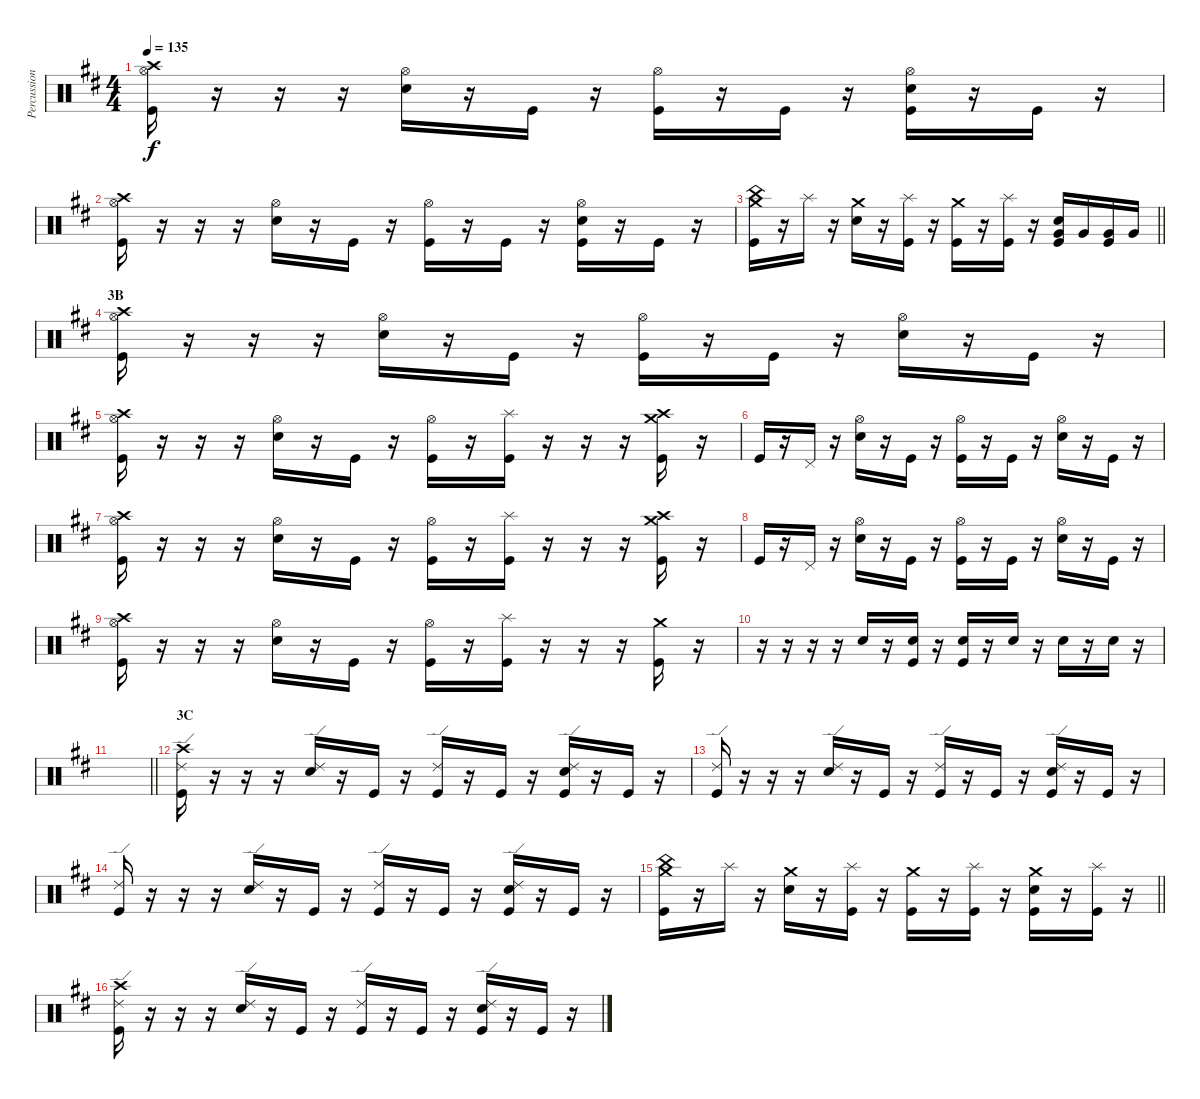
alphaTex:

\track ("Percussion" "Percussion") {instrument percussion}
\staff {score}
\articulation defaults
\ts (4 4)
\tempo 135
\clef neutral
\ks bminor
("Hi-Hat (open)" "Crash high (hit)" "Kick (hit)").16{dy f} r.16 r.16 r.16 ("Hi-Hat (open)" "Electric Snare (hit)").16 r.16 "Kick (hit)".16 r.16 ("Hi-Hat (open)" "Kick (hit)").16 r.16 "Kick (hit)".16 r.16 ("Hi-Hat (open)" "Electric Snare (hit)" "Kick (hit)").16 r.16 "Kick (hit)".16 r.16 |
("Hi-Hat (open)" "Crash high (hit)" "Kick (hit)").16 r.16 r.16 r.16 ("Hi-Hat (open)" "Electric Snare (hit)").16 r.16 "Kick (hit)".16 r.16 ("Hi-Hat (open)" "Kick (hit)").16 r.16 "Kick (hit)".16 r.16 ("Hi-Hat (open)" "Electric Snare (hit)" "Kick (hit)").16 r.16 "Kick (hit)".16 r.16 |
\barLineRight lightlight
("Crash medium (hit)" "China (hit)" "Kick (hit)").16 r.16 "Splash (hit)".16 r.16 ("Crash medium (hit)" "Electric Snare (hit)").16 r.16 ("Splash (hit)" "Kick (hit)").16 r.16 ("Crash medium (hit)" "Kick (hit)").16 r.16 ("Splash (hit)" "Kick (hit)").16 r.16 ("Very Low Tom (hit)" "Electric Snare (hit)" "Kick (hit)").16 "Very Low Tom (hit)".16 ("Very Low Tom (hit)" "Kick (hit)").16 "Very Low Tom (hit)".16 |
\section ("" "3B")
("Hi-Hat (open)" "Crash high (hit)" "Kick (hit)").16 r.16 r.16 r.16 ("Hi-Hat (open)" "Electric Snare (hit)").16 r.16 "Kick (hit)".16 r.16 ("Hi-Hat (open)" "Kick (hit)").16 r.16 "Kick (hit)".16 r.16 ("Hi-Hat (open)" "Electric Snare (hit)").16 r.16 "Kick (hit)".16 r.16 |
("Hi-Hat (open)" "Crash high (hit)" "Kick (hit)").16 r.16 r.16 r.16 ("Hi-Hat (open)" "Electric Snare (hit)").16 r.16 "Kick (hit)".16 r.16 ("Hi-Hat (open)" "Kick (hit)").16 r.16 ("Splash (hit)" "Kick (hit)").16 r.16 r.16 r.16 ("Crash medium (hit)" "Crash high (hit)" "Kick (hit)").16 r.16 |
"Kick (hit)".16 r.16 "Pedal Hi-Hat (hit)".16 r.16 ("Hi-Hat (open)" "Electric Snare (hit)").16 r.16 "Kick (hit)".16 r.16 ("Hi-Hat (open)" "Kick (hit)").16 r.16 "Kick (hit)".16 r.16 ("Hi-Hat (open)" "Electric Snare (hit)").16 r.16 "Kick (hit)".16 r.16 |
("Hi-Hat (open)" "Crash high (hit)" "Kick (hit)").16 r.16 r.16 r.16 ("Hi-Hat (open)" "Electric Snare (hit)").16 r.16 "Kick (hit)".16 r.16 ("Hi-Hat (open)" "Kick (hit)").16 r.16 ("Splash (hit)" "Kick (hit)").16 r.16 r.16 r.16 ("Crash medium (hit)" "Crash high (hit)" "Kick (hit)").16 r.16 |
"Kick (hit)".16 r.16 "Pedal Hi-Hat (hit)".16 r.16 ("Hi-Hat (open)" "Electric Snare (hit)").16 r.16 "Kick (hit)".16 r.16 ("Hi-Hat (open)" "Kick (hit)").16 r.16 "Kick (hit)".16 r.16 ("Hi-Hat (open)" "Electric Snare (hit)").16 r.16 "Kick (hit)".16 r.16 |
("Hi-Hat (open)" "Crash high (hit)" "Kick (hit)").16 r.16 r.16 r.16 ("Hi-Hat (open)" "Electric Snare (hit)").16 r.16 "Kick (hit)".16 r.16 ("Hi-Hat (open)" "Kick (hit)").16 r.16 ("Splash (hit)" "Kick (hit)").16 r.16 r.16 r.16 ("Crash medium (hit)" "Kick (hit)").16 r.16 |
r.16 r.16 r.16 r.16 "Electric Snare (hit)".16 r.16 ("Electric Snare (hit)" "Kick (hit)").16 r.16 ("Electric Snare (hit)" "Kick (hit)").16 r.16 "Electric Snare (hit)".16 r.16 "Electric Snare (hit)".16 r.16 "Electric Snare (hit)".16 r.16 |
\barLineRight lightlight
|
\section ("" "3C")
("Ride (edge) 2" "Crash high (hit)" "Kick (hit)").16 r.16 r.16 r.16 ("Ride (edge) 2" "Electric Snare (hit)").16 r.16 "Kick (hit)".16 r.16 ("Ride (edge) 2" "Kick (hit)").16 r.16 "Kick (hit)".16 r.16 ("Ride (edge) 2" "Electric Snare (hit)" "Kick (hit)").16 r.16 "Kick (hit)".16 r.16 |
("Ride (edge) 2" "Kick (hit)").16 r.16 r.16 r.16 ("Ride (edge) 2" "Electric Snare (hit)").16 r.16 "Kick (hit)".16 r.16 ("Ride (edge) 2" "Kick (hit)").16 r.16 "Kick (hit)".16 r.16 ("Ride (edge) 2" "Electric Snare (hit)" "Kick (hit)").16 r.16 "Kick (hit)".16 r.16 |
("Ride (edge) 2" "Kick (hit)").16 r.16 r.16 r.16 ("Ride (edge) 2" "Electric Snare (hit)").16 r.16 "Kick (hit)".16 r.16 ("Ride (edge) 2" "Kick (hit)").16 r.16 "Kick (hit)".16 r.16 ("Ride (edge) 2" "Electric Snare (hit)" "Kick (hit)").16 r.16 "Kick (hit)".16 r.16 |
\barLineRight lightlight
("Crash medium (hit)" "China (hit)" "Kick (hit)").16 r.16 "Splash (hit)".16 r.16 ("Crash medium (hit)" "Electric Snare (hit)").16 r.16 ("Splash (hit)" "Kick (hit)").16 r.16 ("Crash medium (hit)" "Kick (hit)").16 r.16 ("Splash (hit)" "Kick (hit)").16 r.16 ("Crash medium (hit)" "Electric Snare (hit)" "Kick (hit)").16 r.16 ("Splash (hit)" "Kick (hit)").16 r.16 |
("Ride (edge) 2" "Crash high (hit)" "Kick (hit)").16 r.16 r.16 r.16 ("Ride (edge) 2" "Electric Snare (hit)").16 r.16 "Kick (hit)".16 r.16 ("Ride (edge) 2" "Kick (hit)").16 r.16 "Kick (hit)".16 r.16 ("Ride (edge) 2" "Electric Snare (hit)" "Kick (hit)").16 r.16 "Kick (hit)".16 r.16
